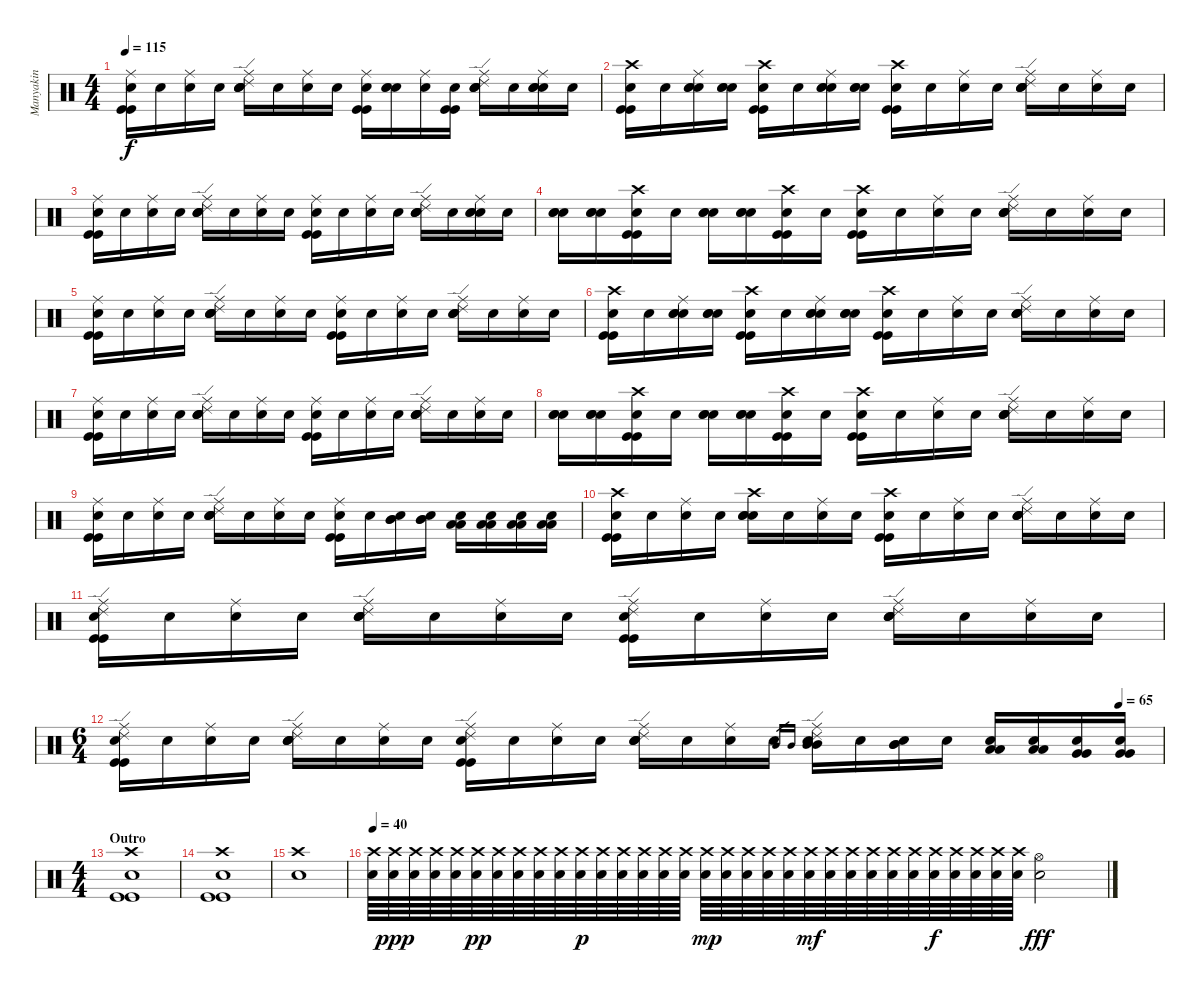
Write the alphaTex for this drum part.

\track ("Manyakin" "Manyakin") {instrument percussion}
\staff {score}
\articulation defaults
\ts (4 4)
\tempo 115
\clef neutral
\ks c
("Ride (middle)" "Kick (hit)" "Kick (hit)" "Snare (hit)"{x}).16{dy f} "Snare (hit)"{x}.16 ("Ride (middle)" "Snare (hit)"{x}).16 "Snare (hit)"{x}.16 ("Ride (middle)" "Ride (edge) 2" "Electric Snare (hit)" "Electric Snare (hit)" "Snare (hit)"{x}).16 "Snare (hit)"{x}.16 ("Ride (middle)" "Snare (hit)"{x}).16 "Snare (hit)"{x}.16 ("Ride (middle)" "Kick (hit)" "Kick (hit)" "Snare (hit)"{x}).16 ("Electric Snare (hit)" "Electric Snare (hit)" "Snare (hit)"{x}).16 ("Ride (middle)" "Snare (hit)"{x}).16 ("Kick (hit)" "Kick (hit)" "Snare (hit)"{x}).16 ("Ride (middle)" "Ride (edge) 2" "Electric Snare (hit)" "Electric Snare (hit)" "Snare (hit)"{x}).16 "Snare (hit)"{x}.16 ("Ride (middle)" "Electric Snare (hit)" "Electric Snare (hit)" "Snare (hit)"{x}).16 "Snare (hit)"{x}.16 |
("Crash high (hit)" "Kick (hit)" "Kick (hit)" "Snare (hit)"{x}).16 "Snare (hit)"{x}.16 ("Ride (middle)" "Electric Snare (hit)" "Electric Snare (hit)" "Snare (hit)"{x}).16 ("Electric Snare (hit)" "Electric Snare (hit)" "Snare (hit)"{x}).16 ("Crash high (hit)" "Kick (hit)" "Kick (hit)" "Snare (hit)"{x}).16 "Snare (hit)"{x}.16 ("Ride (middle)" "Electric Snare (hit)" "Electric Snare (hit)" "Snare (hit)"{x}).16 ("Electric Snare (hit)" "Electric Snare (hit)" "Snare (hit)"{x}).16 ("Crash high (hit)" "Kick (hit)" "Kick (hit)" "Snare (hit)"{x}).16 "Snare (hit)"{x}.16 ("Ride (middle)" "Snare (hit)"{x}).16 "Snare (hit)"{x}.16 ("Ride (middle)" "Ride (edge) 2" "Electric Snare (hit)" "Electric Snare (hit)" "Snare (hit)"{x}).16 "Snare (hit)"{x}.16 ("Ride (middle)" "Snare (hit)"{x}).16 "Snare (hit)"{x}.16 |
("Ride (middle)" "Kick (hit)" "Kick (hit)" "Snare (hit)"{x}).16 "Snare (hit)"{x}.16 ("Ride (middle)" "Snare (hit)"{x}).16 "Snare (hit)"{x}.16 ("Ride (middle)" "Ride (edge) 2" "Electric Snare (hit)" "Electric Snare (hit)" "Snare (hit)"{x}).16 "Snare (hit)"{x}.16 ("Ride (middle)" "Snare (hit)"{x}).16 "Snare (hit)"{x}.16 ("Ride (middle)" "Kick (hit)" "Kick (hit)" "Snare (hit)"{x}).16 "Snare (hit)"{x}.16 ("Ride (middle)" "Snare (hit)"{x}).16 "Snare (hit)"{x}.16 ("Ride (middle)" "Ride (edge) 2" "Electric Snare (hit)" "Electric Snare (hit)" "Snare (hit)"{x}).16 "Snare (hit)"{x}.16 ("Ride (middle)" "Electric Snare (hit)" "Electric Snare (hit)" "Snare (hit)"{x}).16 "Snare (hit)"{x}.16 |
("Electric Snare (hit)" "Electric Snare (hit)" "Snare (hit)"{x}).16 ("Electric Snare (hit)" "Electric Snare (hit)" "Snare (hit)"{x}).16 ("Crash high (hit)" "Kick (hit)" "Kick (hit)" "Snare (hit)"{x}).16 "Snare (hit)"{x}.16 ("Electric Snare (hit)" "Electric Snare (hit)" "Snare (hit)"{x}).16 ("Electric Snare (hit)" "Electric Snare (hit)" "Snare (hit)"{x}).16 ("Crash high (hit)" "Kick (hit)" "Kick (hit)" "Snare (hit)"{x}).16 "Snare (hit)"{x}.16 ("Crash high (hit)" "Kick (hit)" "Kick (hit)" "Snare (hit)"{x}).16 "Snare (hit)"{x}.16 ("Ride (middle)" "Snare (hit)"{x}).16 "Snare (hit)"{x}.16 ("Ride (middle)" "Ride (edge) 2" "Electric Snare (hit)" "Electric Snare (hit)" "Snare (hit)"{x}).16 "Snare (hit)"{x}.16 ("Ride (middle)" "Snare (hit)"{x}).16 "Snare (hit)"{x}.16 |
("Ride (middle)" "Kick (hit)" "Kick (hit)" "Snare (hit)"{x}).16 "Snare (hit)"{x}.16 ("Ride (middle)" "Snare (hit)"{x}).16 "Snare (hit)"{x}.16 ("Ride (middle)" "Ride (edge) 2" "Electric Snare (hit)" "Electric Snare (hit)" "Snare (hit)"{x}).16 "Snare (hit)"{x}.16 ("Ride (middle)" "Snare (hit)"{x}).16 "Snare (hit)"{x}.16 ("Ride (middle)" "Kick (hit)" "Kick (hit)" "Snare (hit)"{x}).16 "Snare (hit)"{x}.16 ("Ride (middle)" "Snare (hit)"{x}).16 "Snare (hit)"{x}.16 ("Ride (middle)" "Ride (edge) 2" "Electric Snare (hit)" "Electric Snare (hit)" "Snare (hit)"{x}).16 "Snare (hit)"{x}.16 ("Ride (middle)" "Snare (hit)"{x}).16 "Snare (hit)"{x}.16 |
("Crash high (hit)" "Kick (hit)" "Kick (hit)" "Snare (hit)"{x}).16 "Snare (hit)"{x}.16 ("Ride (middle)" "Electric Snare (hit)" "Electric Snare (hit)" "Snare (hit)"{x}).16 ("Electric Snare (hit)" "Electric Snare (hit)" "Snare (hit)"{x}).16 ("Crash high (hit)" "Kick (hit)" "Kick (hit)" "Snare (hit)"{x}).16 "Snare (hit)"{x}.16 ("Ride (middle)" "Electric Snare (hit)" "Electric Snare (hit)" "Snare (hit)"{x}).16 ("Electric Snare (hit)" "Electric Snare (hit)" "Snare (hit)"{x}).16 ("Crash high (hit)" "Kick (hit)" "Kick (hit)" "Snare (hit)"{x}).16 "Snare (hit)"{x}.16 ("Ride (middle)" "Snare (hit)"{x}).16 "Snare (hit)"{x}.16 ("Ride (middle)" "Ride (edge) 2" "Electric Snare (hit)" "Electric Snare (hit)" "Snare (hit)"{x}).16 "Snare (hit)"{x}.16 ("Ride (middle)" "Snare (hit)"{x}).16 "Snare (hit)"{x}.16 |
("Ride (middle)" "Kick (hit)" "Kick (hit)" "Snare (hit)"{x}).16 "Snare (hit)"{x}.16 ("Ride (middle)" "Snare (hit)"{x}).16 "Snare (hit)"{x}.16 ("Ride (middle)" "Ride (edge) 2" "Electric Snare (hit)" "Electric Snare (hit)" "Snare (hit)"{x}).16 "Snare (hit)"{x}.16 ("Ride (middle)" "Snare (hit)"{x}).16 "Snare (hit)"{x}.16 ("Ride (middle)" "Kick (hit)" "Kick (hit)" "Snare (hit)"{x}).16 "Snare (hit)"{x}.16 ("Ride (middle)" "Snare (hit)"{x}).16 "Snare (hit)"{x}.16 ("Ride (middle)" "Ride (edge) 2" "Electric Snare (hit)" "Electric Snare (hit)" "Snare (hit)"{x}).16 "Snare (hit)"{x}.16 ("Ride (middle)" "Snare (hit)"{x}).16 "Snare (hit)"{x}.16 |
("Electric Snare (hit)" "Electric Snare (hit)" "Snare (hit)"{x}).16 ("Electric Snare (hit)" "Electric Snare (hit)" "Snare (hit)"{x}).16 ("Crash high (hit)" "Kick (hit)" "Kick (hit)" "Snare (hit)"{x}).16 "Snare (hit)"{x}.16 ("Electric Snare (hit)" "Electric Snare (hit)" "Snare (hit)"{x}).16 ("Electric Snare (hit)" "Electric Snare (hit)" "Snare (hit)"{x}).16 ("Crash high (hit)" "Kick (hit)" "Kick (hit)" "Snare (hit)"{x}).16 "Snare (hit)"{x}.16 ("Crash high (hit)" "Kick (hit)" "Kick (hit)" "Snare (hit)"{x}).16 "Snare (hit)"{x}.16 ("Ride (middle)" "Snare (hit)"{x}).16 "Snare (hit)"{x}.16 ("Ride (middle)" "Ride (edge) 2" "Electric Snare (hit)" "Electric Snare (hit)" "Snare (hit)"{x}).16 "Snare (hit)"{x}.16 ("Ride (middle)" "Snare (hit)"{x}).16 "Snare (hit)"{x}.16 |
("Ride (middle)" "Kick (hit)" "Kick (hit)" "Snare (hit)"{x}).16 "Snare (hit)"{x}.16 ("Ride (middle)" "Snare (hit)"{x}).16 "Snare (hit)"{x}.16 ("Ride (middle)" "Ride (edge) 2" "Electric Snare (hit)" "Electric Snare (hit)" "Snare (hit)"{x}).16 "Snare (hit)"{x}.16 ("Ride (middle)" "Snare (hit)"{x}).16 "Snare (hit)"{x}.16 ("Ride (middle)" "Kick (hit)" "Kick (hit)" "Snare (hit)"{x}).16 "Snare (hit)"{x}.16 ("Mid Tom (hit)" "Mid Tom (hit)" "Snare (hit)"{x}).16 ("Mid Tom (hit)" "Mid Tom (hit)" "Snare (hit)"{x}).16 ("Low Tom (hit)" "Low Tom (hit)" "Snare (hit)"{x}).16 ("Low Tom (hit)" "Low Tom (hit)" "Snare (hit)"{x}).16 ("Low Floor Tom (hit)" "Low Floor Tom (hit)" "Snare (hit)"{x}).16 ("Low Floor Tom (hit)" "Low Floor Tom (hit)" "Snare (hit)"{x}).16 |
("Crash high (hit)" "Kick (hit)" "Kick (hit)" "Snare (hit)"{x}).16 "Snare (hit)"{x}.16 ("Ride (middle)" "Snare (hit)"{x}).16 "Snare (hit)"{x}.16 ("Crash high (hit)" "Electric Snare (hit)" "Electric Snare (hit)" "Snare (hit)"{x}).16 "Snare (hit)"{x}.16 ("Ride (middle)" "Snare (hit)"{x}).16 "Snare (hit)"{x}.16 ("Crash high (hit)" "Kick (hit)" "Kick (hit)" "Snare (hit)"{x}).16 "Snare (hit)"{x}.16 ("Ride (middle)" "Snare (hit)"{x}).16 "Snare (hit)"{x}.16 ("Ride (middle)" "Ride (edge) 2" "Electric Snare (hit)" "Electric Snare (hit)" "Snare (hit)"{x}).16 "Snare (hit)"{x}.16 ("Ride (middle)" "Snare (hit)"{x}).16 "Snare (hit)"{x}.16 |
("Ride (middle)" "Ride (edge) 2" "Kick (hit)" "Kick (hit)" "Snare (hit)"{x}).16 "Snare (hit)"{x}.16 ("Ride (middle)" "Snare (hit)"{x}).16 "Snare (hit)"{x}.16 ("Ride (middle)" "Ride (edge) 2" "Electric Snare (hit)" "Electric Snare (hit)" "Snare (hit)"{x}).16 "Snare (hit)"{x}.16 ("Ride (middle)" "Snare (hit)"{x}).16 "Snare (hit)"{x}.16 ("Ride (middle)" "Ride (edge) 2" "Kick (hit)" "Kick (hit)" "Snare (hit)"{x}).16 "Snare (hit)"{x}.16 ("Ride (middle)" "Snare (hit)"{x}).16 "Snare (hit)"{x}.16 ("Ride (middle)" "Ride (edge) 2" "Electric Snare (hit)" "Electric Snare (hit)" "Snare (hit)"{x}).16 "Snare (hit)"{x}.16 ("Ride (middle)" "Snare (hit)"{x}).16 "Snare (hit)"{x}.16 |
\ts (6 4)
\tempo (65 0.9583333333333334)
("Ride (middle)" "Ride (edge) 2" "Kick (hit)" "Kick (hit)" "Snare (hit)"{x}).16 "Snare (hit)"{x}.16 ("Ride (middle)" "Snare (hit)"{x}).16 "Snare (hit)"{x}.16 ("Ride (middle)" "Ride (edge) 2" "Electric Snare (hit)" "Electric Snare (hit)" "Snare (hit)"{x}).16 "Snare (hit)"{x}.16 ("Ride (middle)" "Snare (hit)"{x}).16 "Snare (hit)"{x}.16 ("Ride (middle)" "Ride (edge) 2" "Kick (hit)" "Kick (hit)" "Snare (hit)"{x}).16 "Snare (hit)"{x}.16 ("Ride (middle)" "Snare (hit)"{x}).16 "Snare (hit)"{x}.16 ("Ride (middle)" "Ride (edge) 2" "Electric Snare (hit)" "Electric Snare (hit)" "Snare (hit)"{x}).16 "Snare (hit)"{x}.16 ("Ride (middle)" "Snare (hit)"{x}).16 "Snare (hit)"{x}.16 "Mid Tom (hit)".16{gr} "Mid Tom (hit)".16{gr} ("Ride (middle)" "Ride (edge) 2" "Mid Tom (hit)" "Mid Tom (hit)" "Snare (hit)"{x}).16 "Snare (hit)"{x}.16 ("Mid Tom (hit)" "Mid Tom (hit)" "Snare (hit)"{x}).16 "Snare (hit)"{x}.16 ("Low Tom (hit)" "Low Tom (hit)" "Snare (hit)"{x}).16 ("Low Tom (hit)" "Low Tom (hit)" "Snare (hit)"{x}).16 ("Very Low Tom (hit)" "Very Low Tom (hit)" "Snare (hit)"{x}).16 ("Very Low Tom (hit)" "Very Low Tom (hit)" "Snare (hit)"{x}).16 |
\ts (4 4)
\section ("" "Outro")
("Crash high (hit)" "Kick (hit)" "Kick (hit)" "Snare (hit)"{x}).1 |
("Crash high (hit)" "Kick (hit)" "Kick (hit)" "Snare (hit)"{x}).1 |
("Crash high (hit)" "Snare (hit)"{x}).1 |
\tempo 40
("Crash high (hit)" "Snare (hit)"{x}).64 ("Crash high (hit)" "Snare (hit)"{x}).64{dy ppp} ("Crash high (hit)" "Snare (hit)"{x}).64 ("Crash high (hit)" "Snare (hit)"{x}).64 ("Crash high (hit)" "Snare (hit)"{x}).64 ("Crash high (hit)" "Snare (hit)"{x}).64{dy pp} ("Crash high (hit)" "Snare (hit)"{x}).64 ("Crash high (hit)" "Snare (hit)"{x}).64 ("Crash high (hit)" "Snare (hit)"{x}).64 ("Crash high (hit)" "Snare (hit)"{x}).64 ("Crash high (hit)" "Snare (hit)"{x}).64{dy p} ("Crash high (hit)" "Snare (hit)"{x}).64 ("Crash high (hit)" "Snare (hit)"{x}).64 ("Crash high (hit)" "Snare (hit)"{x}).64 ("Crash high (hit)" "Snare (hit)"{x}).64 ("Crash high (hit)" "Snare (hit)"{x}).64 ("Crash high (hit)" "Snare (hit)"{x}).64{dy mp} ("Crash high (hit)" "Snare (hit)"{x}).64 ("Crash high (hit)" "Snare (hit)"{x}).64 ("Crash high (hit)" "Snare (hit)"{x}).64 ("Crash high (hit)" "Snare (hit)"{x}).64 ("Crash high (hit)" "Snare (hit)"{x}).64{dy mf} ("Crash high (hit)" "Snare (hit)"{x}).64 ("Crash high (hit)" "Snare (hit)"{x}).64 ("Crash high (hit)" "Snare (hit)"{x}).64 ("Crash high (hit)" "Snare (hit)"{x}).64 ("Crash high (hit)" "Snare (hit)"{x}).64 ("Crash high (hit)" "Snare (hit)"{x}).64{dy f} ("Crash high (hit)" "Snare (hit)"{x}).64 ("Crash high (hit)" "Snare (hit)"{x}).64 ("Crash high (hit)" "Snare (hit)"{x}).64 ("Crash high (hit)" "Snare (hit)"{x}).64 ("Hi-Hat (open)" "Snare (hit)"{x}).2{dy fff}
